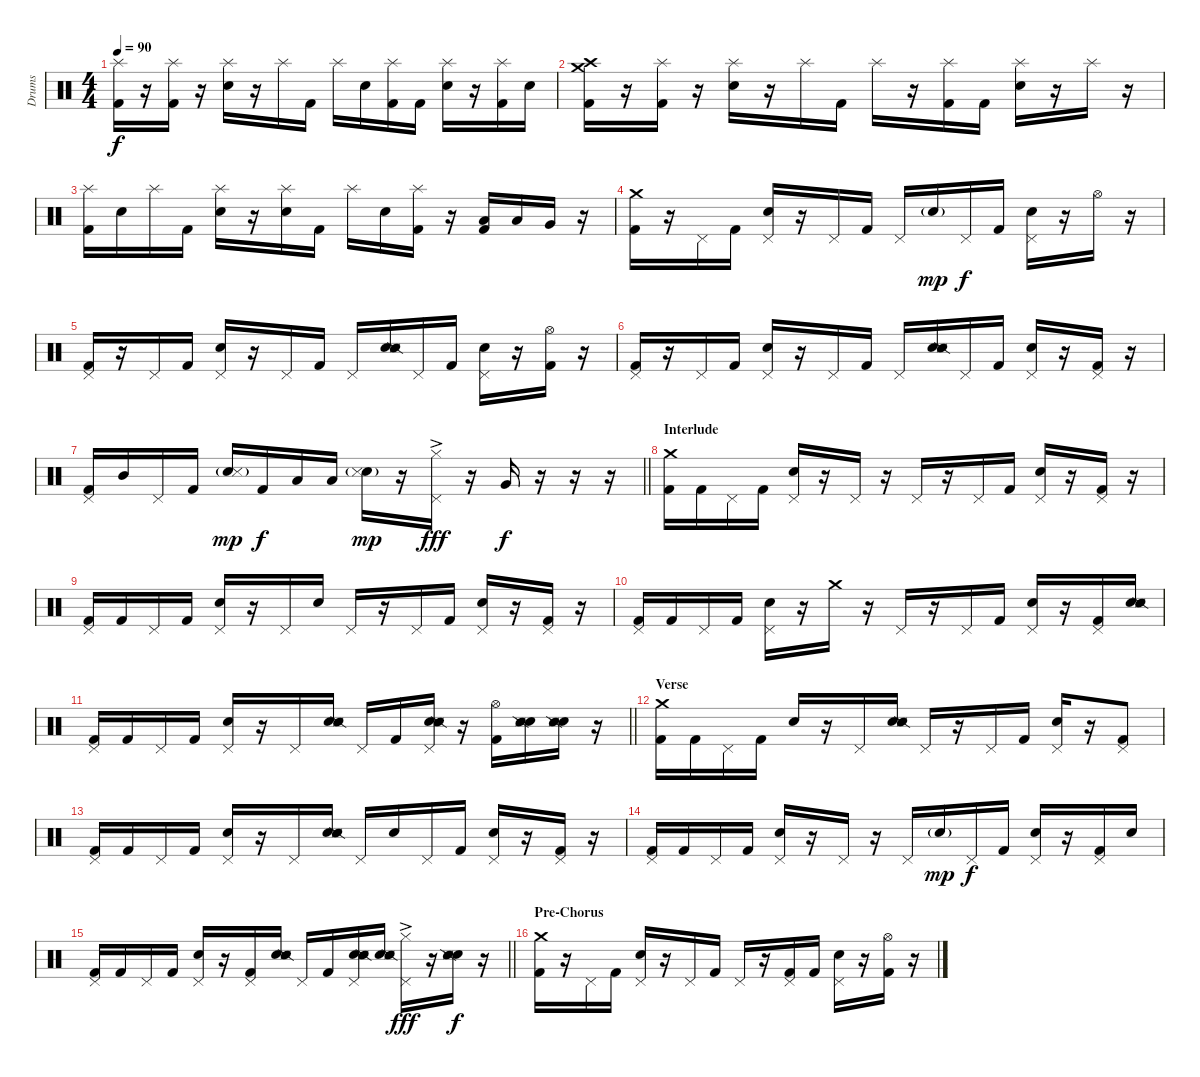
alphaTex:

\track ("Drums" "Drums") {instrument percussion}
\staff {score}
\articulation defaults
\ts (4 4)
\tempo 90
\clef neutral
\ks c
("Splash (hit)" "Kick (hit) 2").16{dy f} r.16 ("Splash (hit)" "Kick (hit) 2").16 r.16 ("Splash (hit)" "Electric Snare (hit)").16 r.16 "Splash (hit)".16 "Kick (hit) 2".16 "Splash (hit)".16 "Electric Snare (hit)".16 ("Splash (hit)" "Kick (hit) 2").16 "Kick (hit) 2".16 ("Splash (hit)" "Electric Snare (hit)").16 r.16 ("Splash (hit)" "Kick (hit) 2").16 "Electric Snare (hit)".16 |
("Crash medium (hit)" "Crash high (hit)" "Kick (hit) 2").16 r.16 ("Splash (hit)" "Kick (hit) 2").16 r.16 ("Splash (hit)" "Electric Snare (hit)").16 r.16 "Splash (hit)".16 "Kick (hit) 2".16 "Splash (hit)".16 r.16 ("Splash (hit)" "Kick (hit) 2").16 "Kick (hit) 2".16 ("Splash (hit)" "Electric Snare (hit)").16 r.16 "Splash (hit)".16 r.16 |
("Splash (hit)" "Kick (hit) 2").16 "Electric Snare (hit)".16 "Splash (hit)".16 "Kick (hit) 2".16 ("Splash (hit)" "Electric Snare (hit)").16 r.16 ("Splash (hit)" "Electric Snare (hit)").16 "Kick (hit) 2".16 "Splash (hit)".16 "Electric Snare (hit)".16 ("Splash (hit)" "Kick (hit) 2").16 r.16 ("Low Tom (hit)" "Kick (hit) 2").16 "Low Tom (hit)".16 "Very Low Tom (hit)".16 r.16 |
("Crash medium (hit)" "Kick (hit) 2").16 r.16 "Pedal Hi-Hat (hit)".16 "Kick (hit) 2".16 ("Pedal Hi-Hat (hit)" "Electric Snare (hit)").16 r.16 "Pedal Hi-Hat (hit)".16 "Kick (hit) 2".16 "Pedal Hi-Hat (hit)".16 "Electric Snare (hit)"{g}.16{dy mp} "Pedal Hi-Hat (hit)".16{dy f} "Kick (hit) 2".16 ("Pedal Hi-Hat (hit)" "Electric Snare (hit)").16 r.16 "Hi-Hat (open)".16 r.16 |
("Pedal Hi-Hat (hit)" "Kick (hit) 2").16 r.16 "Pedal Hi-Hat (hit)".16 "Kick (hit) 2".16 ("Pedal Hi-Hat (hit)" "Electric Snare (hit)").16 r.16 "Pedal Hi-Hat (hit)".16 "Kick (hit) 2".16 "Pedal Hi-Hat (hit)".16 ("Electric Snare (hit)" "Snare (side stick) 2" "Snare (side stick) 3").16 "Pedal Hi-Hat (hit)".16 "Kick (hit) 2".16 ("Pedal Hi-Hat (hit)" "Electric Snare (hit)").16 r.16 ("Hi-Hat (open)" "Kick (hit) 2").16 r.16 |
("Pedal Hi-Hat (hit)" "Kick (hit) 2").16 r.16 "Pedal Hi-Hat (hit)".16 "Kick (hit) 2".16 ("Pedal Hi-Hat (hit)" "Electric Snare (hit)").16 r.16 "Pedal Hi-Hat (hit)".16 "Kick (hit) 2".16 "Pedal Hi-Hat (hit)".16 ("Electric Snare (hit)" "Snare (side stick) 2" "Snare (side stick) 3").16 "Pedal Hi-Hat (hit)".16 "Kick (hit) 2".16 ("Pedal Hi-Hat (hit)" "Electric Snare (hit)").16 r.16 ("Pedal Hi-Hat (hit)" "Kick (hit) 2").16 r.16 |
\barLineRight lightlight
("Pedal Hi-Hat (hit)" "Kick (hit) 2").16 "Mid Tom (hit)".16 "Pedal Hi-Hat (hit)".16 "Kick (hit) 2".16 ("Snare (hit) 2"{g} "Snare (side stick) 3").16{dy mp} "Kick (hit) 2".16{dy f} "Low Tom (hit)".16 "Low Tom (hit)".16 ("Snare (hit) 2"{g} "Snare (side stick) 3").16{dy mp} r.16 ("Hi-Hat (closed)"{ac} "Pedal Hi-Hat (hit)"{ac}).16{dy fff} r.16 "Very Low Tom (hit)".16{dy f} r.16 r.16 r.16 |
\section ("" "Interlude")
("Crash medium (hit)" "Kick (hit) 2").16 "Kick (hit) 2".16 "Pedal Hi-Hat (hit)".16 "Kick (hit) 2".16 ("Pedal Hi-Hat (hit)" "Electric Snare (hit)").16 r.16 "Pedal Hi-Hat (hit)".16 r.16 "Pedal Hi-Hat (hit)".16 r.16 "Pedal Hi-Hat (hit)".16 "Kick (hit) 2".16 ("Pedal Hi-Hat (hit)" "Electric Snare (hit)").16 r.16 ("Pedal Hi-Hat (hit)" "Kick (hit) 2").16 r.16 |
("Pedal Hi-Hat (hit)" "Kick (hit) 2").16 "Kick (hit) 2".16 "Pedal Hi-Hat (hit)".16 "Kick (hit) 2".16 ("Pedal Hi-Hat (hit)" "Electric Snare (hit)").16 r.16 "Pedal Hi-Hat (hit)".16 "Electric Snare (hit)".16 "Pedal Hi-Hat (hit)".16 r.16 "Pedal Hi-Hat (hit)".16 "Kick (hit) 2".16 ("Pedal Hi-Hat (hit)" "Electric Snare (hit)").16 r.16 ("Pedal Hi-Hat (hit)" "Kick (hit) 2").16 r.16 |
("Pedal Hi-Hat (hit)" "Kick (hit) 2").16 "Kick (hit) 2".16 "Pedal Hi-Hat (hit)".16 "Kick (hit) 2".16 ("Pedal Hi-Hat (hit)" "Electric Snare (hit)").16 r.16 "Crash medium (hit)".16 r.16 "Pedal Hi-Hat (hit)".16 r.16 "Pedal Hi-Hat (hit)".16 "Kick (hit) 2".16 ("Pedal Hi-Hat (hit)" "Electric Snare (hit)").16 r.16 ("Pedal Hi-Hat (hit)" "Kick (hit) 2").16 ("Electric Snare (hit)" "Snare (side stick) 2" "Snare (side stick) 3").16 |
\barLineRight lightlight
("Pedal Hi-Hat (hit)" "Kick (hit) 2").16 "Kick (hit) 2".16 "Pedal Hi-Hat (hit)".16 "Kick (hit) 2".16 ("Pedal Hi-Hat (hit)" "Electric Snare (hit)").16 r.16 "Pedal Hi-Hat (hit)".16 ("Electric Snare (hit)" "Snare (side stick) 2" "Snare (side stick) 3").16 "Pedal Hi-Hat (hit)".16 "Kick (hit) 2".16 ("Pedal Hi-Hat (hit)" "Electric Snare (hit)" "Snare (side stick) 2" "Snare (side stick) 3").16 r.16 ("Hi-Hat (open)" "Kick (hit) 2").16 ("Electric Snare (hit)" "Snare (side stick) 2" "Snare (side stick) 3").16 ("Electric Snare (hit)" "Snare (side stick) 2" "Snare (side stick) 3").16 r.16 |
\section ("" "Verse")
("Crash medium (hit)" "Kick (hit) 2").16 "Kick (hit) 2".16 "Pedal Hi-Hat (hit)".16 "Kick (hit) 2".16 "Snare (hit) 2".16 r.16 "Pedal Hi-Hat (hit)".16 ("Electric Snare (hit)" "Snare (side stick) 2" "Snare (side stick) 3").16 "Pedal Hi-Hat (hit)".16 r.16 "Pedal Hi-Hat (hit)".16 "Kick (hit) 2".16 ("Pedal Hi-Hat (hit)" "Electric Snare (hit)").16 r.16 ("Pedal Hi-Hat (hit)" "Kick (hit) 2").8 |
("Pedal Hi-Hat (hit)" "Kick (hit) 2").16 "Kick (hit) 2".16 "Pedal Hi-Hat (hit)".16 "Kick (hit) 2".16 ("Pedal Hi-Hat (hit)" "Electric Snare (hit)").16 r.16 "Pedal Hi-Hat (hit)".16 ("Electric Snare (hit)" "Snare (side stick) 2" "Snare (side stick) 3").16 "Pedal Hi-Hat (hit)".16 "Electric Snare (hit)".16 "Pedal Hi-Hat (hit)".16 "Kick (hit) 2".16 ("Pedal Hi-Hat (hit)" "Electric Snare (hit)").16 r.16 ("Pedal Hi-Hat (hit)" "Kick (hit) 2").16 r.16 |
("Pedal Hi-Hat (hit)" "Kick (hit) 2").16 "Kick (hit) 2".16 "Pedal Hi-Hat (hit)".16 "Kick (hit) 2".16 ("Pedal Hi-Hat (hit)" "Electric Snare (hit)").16 r.16 "Pedal Hi-Hat (hit)".16 r.16 "Pedal Hi-Hat (hit)".16 "Electric Snare (hit)"{g}.16{dy mp} "Pedal Hi-Hat (hit)".16{dy f} "Kick (hit) 2".16 ("Pedal Hi-Hat (hit)" "Electric Snare (hit)").16 r.16 ("Pedal Hi-Hat (hit)" "Kick (hit) 2").16 "Snare (hit) 2".16 |
\barLineRight lightlight
("Pedal Hi-Hat (hit)" "Kick (hit) 2").16 "Kick (hit) 2".16 "Pedal Hi-Hat (hit)".16 "Kick (hit) 2".16 ("Pedal Hi-Hat (hit)" "Electric Snare (hit)").16 r.16 ("Pedal Hi-Hat (hit)" "Kick (hit) 2").16 ("Electric Snare (hit)" "Snare (side stick) 2" "Snare (side stick) 3").16 "Pedal Hi-Hat (hit)".16 "Kick (hit) 2".16 ("Pedal Hi-Hat (hit)" "Electric Snare (hit)" "Snare (side stick) 2" "Snare (side stick) 3").16 ("Electric Snare (hit)" "Snare (side stick) 2" "Snare (side stick) 3").16 ("Hi-Hat (closed)"{ac} "Pedal Hi-Hat (hit)"{ac}).16{dy fff} r.16 ("Electric Snare (hit)" "Snare (side stick) 2" "Snare (side stick) 3").16{dy f} r.16 |
\section ("" "Pre-Chorus")
("Crash medium (hit)" "Kick (hit) 2").16 r.16 "Pedal Hi-Hat (hit)".16 "Kick (hit) 2".16 ("Pedal Hi-Hat (hit)" "Electric Snare (hit)").16 r.16 "Pedal Hi-Hat (hit)".16 "Kick (hit) 2".16 "Pedal Hi-Hat (hit)".16 r.16 ("Pedal Hi-Hat (hit)" "Kick (hit) 2").16 "Kick (hit) 2".16 ("Pedal Hi-Hat (hit)" "Electric Snare (hit)").16 r.16 ("Hi-Hat (open)" "Kick (hit) 2").16 r.16
